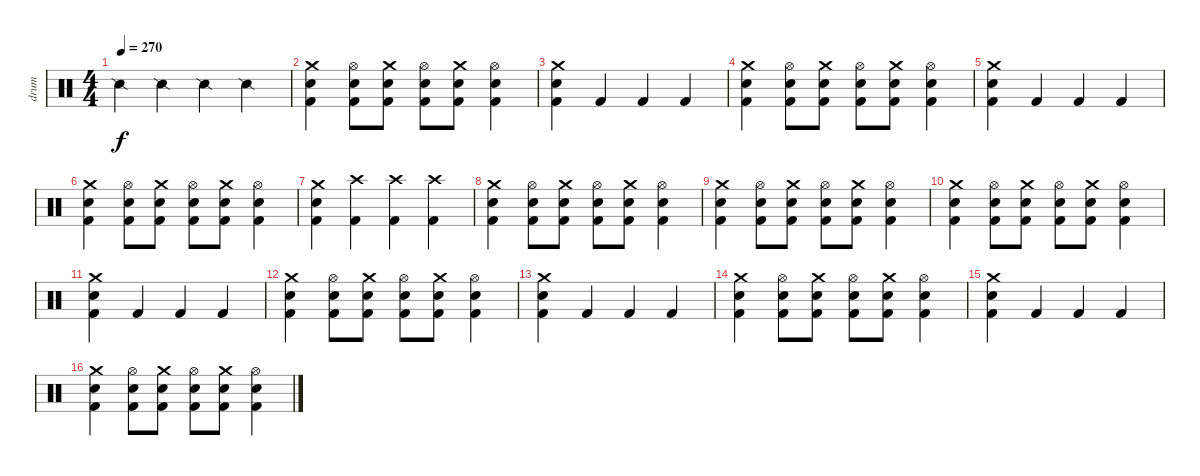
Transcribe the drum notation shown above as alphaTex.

\track ("drum" "drum") {instrument percussion}
\staff {score}
\articulation defaults
\ts (4 4)
\tempo 270
\clef neutral
\ks c "Snare (side stick) 2".4{dy f} "Snare (side stick) 2".4 "Snare (side stick) 2".4 "Snare (side stick) 2".4
|
("Kick (hit) 2" "Snare (hit) 2" "Crash medium (hit)").4 ("Kick (hit) 2" "Snare (hit) 2" "Hi-Hat (open)").8 ("Kick (hit) 2" "Snare (hit) 2" "Crash medium (hit)").8 ("Kick (hit) 2" "Snare (hit) 2" "Hi-Hat (open)").8 ("Kick (hit) 2" "Snare (hit) 2" "Crash medium (hit)").8 ("Kick (hit) 2" "Snare (hit) 2" "Hi-Hat (open)").4 |
("Kick (hit) 2" "Snare (hit) 2" "Crash medium (hit)").4 "Kick (hit) 2".4 "Kick (hit) 2".4 "Kick (hit) 2".4 |
("Kick (hit) 2" "Snare (hit) 2" "Crash medium (hit)").4 ("Kick (hit) 2" "Snare (hit) 2" "Hi-Hat (open)").8 ("Kick (hit) 2" "Snare (hit) 2" "Crash medium (hit)").8 ("Kick (hit) 2" "Snare (hit) 2" "Hi-Hat (open)").8 ("Kick (hit) 2" "Snare (hit) 2" "Crash medium (hit)").8 ("Kick (hit) 2" "Snare (hit) 2" "Hi-Hat (open)").4 |
("Kick (hit) 2" "Snare (hit) 2" "Crash medium (hit)").4 "Kick (hit) 2".4 "Kick (hit) 2".4 "Kick (hit) 2".4 |
("Kick (hit) 2" "Snare (hit) 2" "Crash medium (hit)").4 ("Kick (hit) 2" "Snare (hit) 2" "Hi-Hat (open)").8 ("Kick (hit) 2" "Snare (hit) 2" "Crash medium (hit)").8 ("Kick (hit) 2" "Snare (hit) 2" "Hi-Hat (open)").8 ("Kick (hit) 2" "Snare (hit) 2" "Crash medium (hit)").8 ("Kick (hit) 2" "Snare (hit) 2" "Hi-Hat (open)").4 |
("Kick (hit) 2" "Snare (hit) 2" "Crash medium (hit)").4 ("Kick (hit) 2" "Crash high (hit)").4 ("Kick (hit) 2" "Crash high (hit)").4 ("Kick (hit) 2" "Crash high (hit)").4 |
("Kick (hit) 2" "Snare (hit) 2" "Crash medium (hit)").4 ("Kick (hit) 2" "Snare (hit) 2" "Hi-Hat (open)").8 ("Kick (hit) 2" "Snare (hit) 2" "Crash medium (hit)").8 ("Kick (hit) 2" "Snare (hit) 2" "Hi-Hat (open)").8 ("Kick (hit) 2" "Snare (hit) 2" "Crash medium (hit)").8 ("Kick (hit) 2" "Snare (hit) 2" "Hi-Hat (open)").4 |
("Kick (hit) 2" "Snare (hit) 2" "Crash medium (hit)").4 ("Kick (hit) 2" "Snare (hit) 2" "Hi-Hat (open)").8 ("Kick (hit) 2" "Snare (hit) 2" "Crash medium (hit)").8 ("Kick (hit) 2" "Snare (hit) 2" "Hi-Hat (open)").8 ("Kick (hit) 2" "Snare (hit) 2" "Crash medium (hit)").8 ("Kick (hit) 2" "Snare (hit) 2" "Hi-Hat (open)").4 |
("Kick (hit) 2" "Snare (hit) 2" "Crash medium (hit)").4 ("Kick (hit) 2" "Snare (hit) 2" "Hi-Hat (open)").8 ("Kick (hit) 2" "Snare (hit) 2" "Crash medium (hit)").8 ("Kick (hit) 2" "Snare (hit) 2" "Hi-Hat (open)").8 ("Kick (hit) 2" "Snare (hit) 2" "Crash medium (hit)").8 ("Kick (hit) 2" "Snare (hit) 2" "Hi-Hat (open)").4 |
("Kick (hit) 2" "Snare (hit) 2" "Crash medium (hit)").4 "Kick (hit) 2".4 "Kick (hit) 2".4 "Kick (hit) 2".4 |
("Kick (hit) 2" "Snare (hit) 2" "Crash medium (hit)").4 ("Kick (hit) 2" "Snare (hit) 2" "Hi-Hat (open)").8 ("Kick (hit) 2" "Snare (hit) 2" "Crash medium (hit)").8 ("Kick (hit) 2" "Snare (hit) 2" "Hi-Hat (open)").8 ("Kick (hit) 2" "Snare (hit) 2" "Crash medium (hit)").8 ("Kick (hit) 2" "Snare (hit) 2" "Hi-Hat (open)").4 |
("Kick (hit) 2" "Snare (hit) 2" "Crash medium (hit)").4 "Kick (hit) 2".4 "Kick (hit) 2".4 "Kick (hit) 2".4 |
("Kick (hit) 2" "Snare (hit) 2" "Crash medium (hit)").4 ("Kick (hit) 2" "Snare (hit) 2" "Hi-Hat (open)").8 ("Kick (hit) 2" "Snare (hit) 2" "Crash medium (hit)").8 ("Kick (hit) 2" "Snare (hit) 2" "Hi-Hat (open)").8 ("Kick (hit) 2" "Snare (hit) 2" "Crash medium (hit)").8 ("Kick (hit) 2" "Snare (hit) 2" "Hi-Hat (open)").4 |
("Kick (hit) 2" "Snare (hit) 2" "Crash medium (hit)").4 "Kick (hit) 2".4 "Kick (hit) 2".4 "Kick (hit) 2".4 |
("Kick (hit) 2" "Snare (hit) 2" "Crash medium (hit)").4 ("Kick (hit) 2" "Snare (hit) 2" "Hi-Hat (open)").8 ("Kick (hit) 2" "Snare (hit) 2" "Crash medium (hit)").8 ("Kick (hit) 2" "Snare (hit) 2" "Hi-Hat (open)").8 ("Kick (hit) 2" "Snare (hit) 2" "Crash medium (hit)").8 ("Kick (hit) 2" "Snare (hit) 2" "Hi-Hat (open)").4
